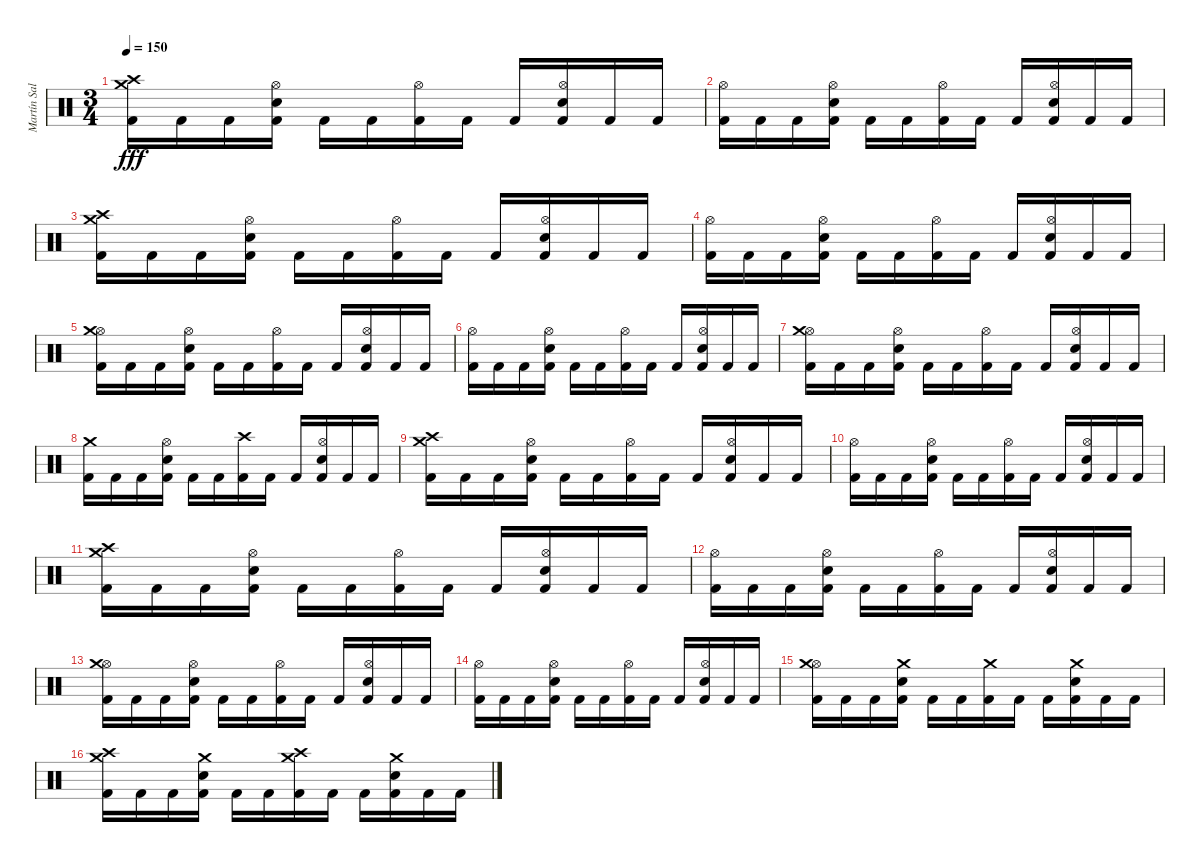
\track ("Martín Salariato" "Martín Sal") {instrument percussion}
\staff {score}
\articulation defaults
\ts (3 4)
\tempo 150
\clef neutral
\ks c
("Crash high (hit)" "Crash medium (hit)" "Kick (hit) 2").16{dy fff} "Kick (hit) 2".16 "Kick (hit) 2".16 ("Hi-Hat (open)" "Snare (hit) 2" "Kick (hit) 2").16 "Kick (hit) 2".16 "Kick (hit) 2".16 ("Hi-Hat (open)" "Kick (hit) 2").16 "Kick (hit) 2".16 "Kick (hit) 2".16 ("Hi-Hat (open)" "Snare (hit) 2" "Kick (hit) 2").16 "Kick (hit) 2".16 "Kick (hit) 2".16 |
("Hi-Hat (open)" "Kick (hit) 2").16 "Kick (hit) 2".16 "Kick (hit) 2".16 ("Hi-Hat (open)" "Snare (hit) 2" "Kick (hit) 2").16 "Kick (hit) 2".16 "Kick (hit) 2".16 ("Hi-Hat (open)" "Kick (hit) 2").16 "Kick (hit) 2".16 "Kick (hit) 2".16 ("Hi-Hat (open)" "Snare (hit) 2" "Kick (hit) 2").16 "Kick (hit) 2".16 "Kick (hit) 2".16 |
("Crash medium (hit)" "Crash high (hit)" "Kick (hit) 2").16 "Kick (hit) 2".16 "Kick (hit) 2".16 ("Hi-Hat (open)" "Snare (hit) 2" "Kick (hit) 2").16 "Kick (hit) 2".16 "Kick (hit) 2".16 ("Hi-Hat (open)" "Kick (hit) 2").16 "Kick (hit) 2".16 "Kick (hit) 2".16 ("Hi-Hat (open)" "Snare (hit) 2" "Kick (hit) 2").16 "Kick (hit) 2".16 "Kick (hit) 2".16 |
("Hi-Hat (open)" "Kick (hit) 2").16 "Kick (hit) 2".16 "Kick (hit) 2".16 ("Hi-Hat (open)" "Snare (hit) 2" "Kick (hit) 2").16 "Kick (hit) 2".16 "Kick (hit) 2".16 ("Hi-Hat (open)" "Kick (hit) 2").16 "Kick (hit) 2".16 "Kick (hit) 2".16 ("Hi-Hat (open)" "Snare (hit) 2" "Kick (hit) 2").16 "Kick (hit) 2".16 "Kick (hit) 2".16 |
("Hi-Hat (open)" "Crash medium (hit)" "Kick (hit) 2").16 "Kick (hit) 2".16 "Kick (hit) 2".16 ("Hi-Hat (open)" "Snare (hit) 2" "Kick (hit) 2").16 "Kick (hit) 2".16 "Kick (hit) 2".16 ("Hi-Hat (open)" "Kick (hit) 2").16 "Kick (hit) 2".16 "Kick (hit) 2".16 ("Hi-Hat (open)" "Snare (hit) 2" "Kick (hit) 2").16 "Kick (hit) 2".16 "Kick (hit) 2".16 |
("Hi-Hat (open)" "Kick (hit) 2").16 "Kick (hit) 2".16 "Kick (hit) 2".16 ("Hi-Hat (open)" "Snare (hit) 2" "Kick (hit) 2").16 "Kick (hit) 2".16 "Kick (hit) 2".16 ("Hi-Hat (open)" "Kick (hit) 2").16 "Kick (hit) 2".16 "Kick (hit) 2".16 ("Hi-Hat (open)" "Snare (hit) 2" "Kick (hit) 2").16 "Kick (hit) 2".16 "Kick (hit) 2".16 |
("Hi-Hat (open)" "Crash medium (hit)" "Kick (hit) 2").16 "Kick (hit) 2".16 "Kick (hit) 2".16 ("Hi-Hat (open)" "Snare (hit) 2" "Kick (hit) 2").16 "Kick (hit) 2".16 "Kick (hit) 2".16 ("Hi-Hat (open)" "Kick (hit) 2").16 "Kick (hit) 2".16 "Kick (hit) 2".16 ("Hi-Hat (open)" "Snare (hit) 2" "Kick (hit) 2").16 "Kick (hit) 2".16 "Kick (hit) 2".16 |
("Crash medium (hit)" "Kick (hit) 2").16 "Kick (hit) 2".16 "Kick (hit) 2".16 ("Hi-Hat (open)" "Snare (hit) 2" "Kick (hit) 2").16 "Kick (hit) 2".16 "Kick (hit) 2".16 ("Crash high (hit)" "Kick (hit) 2").16 "Kick (hit) 2".16 "Kick (hit) 2".16 ("Hi-Hat (open)" "Snare (hit) 2" "Kick (hit) 2").16 "Kick (hit) 2".16 "Kick (hit) 2".16 |
("Crash high (hit)" "Crash medium (hit)" "Kick (hit) 2").16 "Kick (hit) 2".16 "Kick (hit) 2".16 ("Hi-Hat (open)" "Snare (hit) 2" "Kick (hit) 2").16 "Kick (hit) 2".16 "Kick (hit) 2".16 ("Hi-Hat (open)" "Kick (hit) 2").16 "Kick (hit) 2".16 "Kick (hit) 2".16 ("Hi-Hat (open)" "Snare (hit) 2" "Kick (hit) 2").16 "Kick (hit) 2".16 "Kick (hit) 2".16 |
("Hi-Hat (open)" "Kick (hit) 2").16 "Kick (hit) 2".16 "Kick (hit) 2".16 ("Hi-Hat (open)" "Snare (hit) 2" "Kick (hit) 2").16 "Kick (hit) 2".16 "Kick (hit) 2".16 ("Hi-Hat (open)" "Kick (hit) 2").16 "Kick (hit) 2".16 "Kick (hit) 2".16 ("Hi-Hat (open)" "Snare (hit) 2" "Kick (hit) 2").16 "Kick (hit) 2".16 "Kick (hit) 2".16 |
("Crash medium (hit)" "Crash high (hit)" "Kick (hit) 2").16 "Kick (hit) 2".16 "Kick (hit) 2".16 ("Hi-Hat (open)" "Snare (hit) 2" "Kick (hit) 2").16 "Kick (hit) 2".16 "Kick (hit) 2".16 ("Hi-Hat (open)" "Kick (hit) 2").16 "Kick (hit) 2".16 "Kick (hit) 2".16 ("Hi-Hat (open)" "Snare (hit) 2" "Kick (hit) 2").16 "Kick (hit) 2".16 "Kick (hit) 2".16 |
("Hi-Hat (open)" "Kick (hit) 2").16 "Kick (hit) 2".16 "Kick (hit) 2".16 ("Hi-Hat (open)" "Snare (hit) 2" "Kick (hit) 2").16 "Kick (hit) 2".16 "Kick (hit) 2".16 ("Hi-Hat (open)" "Kick (hit) 2").16 "Kick (hit) 2".16 "Kick (hit) 2".16 ("Hi-Hat (open)" "Snare (hit) 2" "Kick (hit) 2").16 "Kick (hit) 2".16 "Kick (hit) 2".16 |
("Hi-Hat (open)" "Crash medium (hit)" "Kick (hit) 2").16 "Kick (hit) 2".16 "Kick (hit) 2".16 ("Hi-Hat (open)" "Snare (hit) 2" "Kick (hit) 2").16 "Kick (hit) 2".16 "Kick (hit) 2".16 ("Hi-Hat (open)" "Kick (hit) 2").16 "Kick (hit) 2".16 "Kick (hit) 2".16 ("Hi-Hat (open)" "Snare (hit) 2" "Kick (hit) 2").16 "Kick (hit) 2".16 "Kick (hit) 2".16 |
("Hi-Hat (open)" "Kick (hit) 2").16 "Kick (hit) 2".16 "Kick (hit) 2".16 ("Hi-Hat (open)" "Snare (hit) 2" "Kick (hit) 2").16 "Kick (hit) 2".16 "Kick (hit) 2".16 ("Hi-Hat (open)" "Kick (hit) 2").16 "Kick (hit) 2".16 "Kick (hit) 2".16 ("Hi-Hat (open)" "Snare (hit) 2" "Kick (hit) 2").16 "Kick (hit) 2".16 "Kick (hit) 2".16 |
("Hi-Hat (open)" "Crash medium (hit)" "Kick (hit) 2").16 "Kick (hit) 2".16 "Kick (hit) 2".16 ("Crash medium (hit)" "Snare (hit) 2" "Kick (hit) 2").16 "Kick (hit) 2".16 "Kick (hit) 2".16 ("Crash medium (hit)" "Kick (hit) 2").16 "Kick (hit) 2".16 "Kick (hit) 2".16 ("Crash medium (hit)" "Snare (hit) 2" "Kick (hit) 2").16 "Kick (hit) 2".16 "Kick (hit) 2".16 |
("Crash high (hit)" "Crash medium (hit)" "Kick (hit) 2").16 "Kick (hit) 2".16 "Kick (hit) 2".16 ("Crash medium (hit)" "Snare (hit) 2" "Kick (hit) 2").16 "Kick (hit) 2".16 "Kick (hit) 2".16 ("Crash medium (hit)" "Crash high (hit)" "Kick (hit) 2").16 "Kick (hit) 2".16 "Kick (hit) 2".16 ("Crash medium (hit)" "Snare (hit) 2" "Kick (hit) 2").16 "Kick (hit) 2".16 "Kick (hit) 2".16
